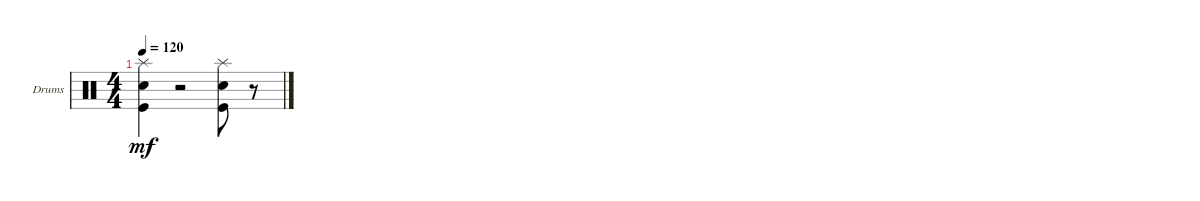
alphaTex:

\bracketExtendMode groupsimilarinstruments
\firstSystemTrackNameOrientation horizontal
\otherSystemsTrackNameOrientation horizontal
\track ("Drumkit" "Drums") {instrument percussion}
\staff {score}
\articulation defaults
\ts (4 4)
\tempo 120
\clef neutral
\ks c
("Kick (hit)" "Snare (hit) 2" "Splash (hit)").4{dy mf} r.2 ("Kick (hit)" "Snare (hit) 2" "Splash (hit)").8 r.8
